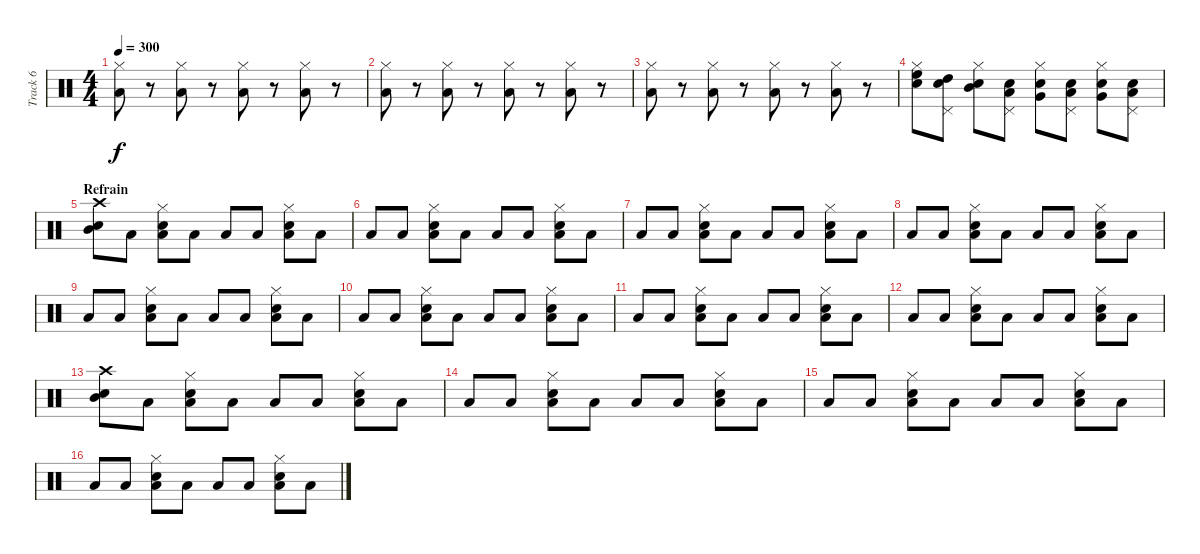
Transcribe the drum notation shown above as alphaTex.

\track ("Track 6" "Track 6") {instrument percussion}
\staff {score}
\articulation defaults
\ts (4 4)
\tempo 300
\clef neutral
\ks c
("Low Floor Tom (hit)" "Hi-Hat (closed)").8{dy f} r.8 ("Low Floor Tom (hit)" "Hi-Hat (closed)").8 r.8 ("Low Floor Tom (hit)" "Hi-Hat (closed)").8 r.8 ("Low Floor Tom (hit)" "Hi-Hat (closed)").8 r.8 |
("Low Floor Tom (hit)" "Hi-Hat (closed)").8 r.8 ("Low Floor Tom (hit)" "Hi-Hat (closed)").8 r.8 ("Low Floor Tom (hit)" "Hi-Hat (closed)").8 r.8 ("Low Floor Tom (hit)" "Hi-Hat (closed)").8 r.8 |
("Low Floor Tom (hit)" "Hi-Hat (closed)").8 r.8 ("Low Floor Tom (hit)" "Hi-Hat (closed)").8 r.8 ("Low Floor Tom (hit)" "Hi-Hat (closed)").8 r.8 ("Low Floor Tom (hit)" "Hi-Hat (closed)").8 r.8 |
("High Floor Tom (hit)" "Electric Snare (hit)" "Hi-Hat (closed)").8 ("High Tom (hit)" "Electric Snare (hit)" "Pedal Hi-Hat (hit)").8 ("Mid Tom (hit)" "Electric Snare (hit)" "Hi-Hat (closed)").8 ("Low Tom (hit)" "Electric Snare (hit)" "Pedal Hi-Hat (hit)").8 ("Very Low Tom (hit)" "Electric Snare (hit)" "Hi-Hat (closed)").8 ("Low Floor Tom (hit)" "Electric Snare (hit)" "Pedal Hi-Hat (hit)").8 ("Very Low Tom (hit)" "Electric Snare (hit)" "Hi-Hat (closed)").8 ("Low Tom (hit)" "Electric Snare (hit)" "Pedal Hi-Hat (hit)").8 |
\section ("" "Refrain")
("Snare (hit) 2" "Mid Tom (hit)" "Crash high (hit)").8 "Low Floor Tom (hit)".8 ("Electric Snare (hit)" "Low Tom (hit)" "Hi-Hat (closed)").8 "Low Floor Tom (hit)".8 "Low Floor Tom (hit)".8 "Low Floor Tom (hit)".8 ("Electric Snare (hit)" "Low Tom (hit)" "Hi-Hat (closed)").8 "Low Floor Tom (hit)".8 |
"Low Floor Tom (hit)".8 "Low Floor Tom (hit)".8 ("Electric Snare (hit)" "Low Tom (hit)" "Hi-Hat (closed)").8 "Low Floor Tom (hit)".8 "Low Floor Tom (hit)".8 "Low Floor Tom (hit)".8 ("Electric Snare (hit)" "Low Tom (hit)" "Hi-Hat (closed)").8 "Low Floor Tom (hit)".8 |
"Low Floor Tom (hit)".8 "Low Floor Tom (hit)".8 ("Electric Snare (hit)" "Low Tom (hit)" "Hi-Hat (closed)").8 "Low Floor Tom (hit)".8 "Low Floor Tom (hit)".8 "Low Floor Tom (hit)".8 ("Electric Snare (hit)" "Low Tom (hit)" "Hi-Hat (closed)").8 "Low Floor Tom (hit)".8 |
"Low Floor Tom (hit)".8 "Low Floor Tom (hit)".8 ("Electric Snare (hit)" "Low Tom (hit)" "Hi-Hat (closed)").8 "Low Floor Tom (hit)".8 "Low Floor Tom (hit)".8 "Low Floor Tom (hit)".8 ("Electric Snare (hit)" "Low Tom (hit)" "Hi-Hat (closed)").8 "Low Floor Tom (hit)".8 |
"Low Floor Tom (hit)".8 "Low Floor Tom (hit)".8 ("Electric Snare (hit)" "Low Tom (hit)" "Hi-Hat (closed)").8 "Low Floor Tom (hit)".8 "Low Floor Tom (hit)".8 "Low Floor Tom (hit)".8 ("Electric Snare (hit)" "Low Tom (hit)" "Hi-Hat (closed)").8 "Low Floor Tom (hit)".8 |
"Low Floor Tom (hit)".8 "Low Floor Tom (hit)".8 ("Electric Snare (hit)" "Low Tom (hit)" "Hi-Hat (closed)").8 "Low Floor Tom (hit)".8 "Low Floor Tom (hit)".8 "Low Floor Tom (hit)".8 ("Electric Snare (hit)" "Low Tom (hit)" "Hi-Hat (closed)").8 "Low Floor Tom (hit)".8 |
"Low Floor Tom (hit)".8 "Low Floor Tom (hit)".8 ("Electric Snare (hit)" "Low Tom (hit)" "Hi-Hat (closed)").8 "Low Floor Tom (hit)".8 "Low Floor Tom (hit)".8 "Low Floor Tom (hit)".8 ("Electric Snare (hit)" "Low Tom (hit)" "Hi-Hat (closed)").8 "Low Floor Tom (hit)".8 |
"Low Floor Tom (hit)".8 "Low Floor Tom (hit)".8 ("Electric Snare (hit)" "Low Tom (hit)" "Hi-Hat (closed)").8 "Low Floor Tom (hit)".8 "Low Floor Tom (hit)".8 "Low Floor Tom (hit)".8 ("Electric Snare (hit)" "Low Tom (hit)" "Hi-Hat (closed)").8 "Low Floor Tom (hit)".8 |
("Snare (hit) 2" "Mid Tom (hit)" "Crash high (hit)").8 "Low Floor Tom (hit)".8 ("Electric Snare (hit)" "Low Tom (hit)" "Hi-Hat (closed)").8 "Low Floor Tom (hit)".8 "Low Floor Tom (hit)".8 "Low Floor Tom (hit)".8 ("Electric Snare (hit)" "Low Tom (hit)" "Hi-Hat (closed)").8 "Low Floor Tom (hit)".8 |
"Low Floor Tom (hit)".8 "Low Floor Tom (hit)".8 ("Electric Snare (hit)" "Low Tom (hit)" "Hi-Hat (closed)").8 "Low Floor Tom (hit)".8 "Low Floor Tom (hit)".8 "Low Floor Tom (hit)".8 ("Electric Snare (hit)" "Low Tom (hit)" "Hi-Hat (closed)").8 "Low Floor Tom (hit)".8 |
"Low Floor Tom (hit)".8 "Low Floor Tom (hit)".8 ("Electric Snare (hit)" "Low Tom (hit)" "Hi-Hat (closed)").8 "Low Floor Tom (hit)".8 "Low Floor Tom (hit)".8 "Low Floor Tom (hit)".8 ("Electric Snare (hit)" "Low Tom (hit)" "Hi-Hat (closed)").8 "Low Floor Tom (hit)".8 |
"Low Floor Tom (hit)".8 "Low Floor Tom (hit)".8 ("Electric Snare (hit)" "Low Tom (hit)" "Hi-Hat (closed)").8 "Low Floor Tom (hit)".8 "Low Floor Tom (hit)".8 "Low Floor Tom (hit)".8 ("Electric Snare (hit)" "Low Tom (hit)" "Hi-Hat (closed)").8 "Low Floor Tom (hit)".8
